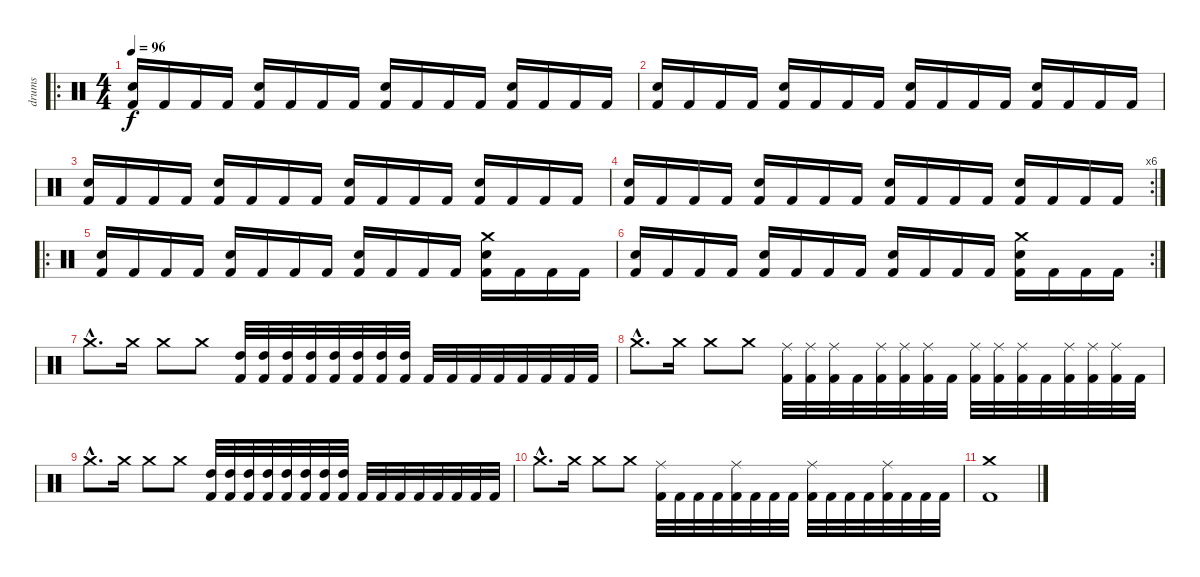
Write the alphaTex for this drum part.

\track ("drums" "drums") {instrument percussion}
\staff {score}
\articulation defaults
\ro
\ts (4 4)
\tempo 96
\clef neutral
\ks c
("Electric Snare (hit)" "Kick (hit) 2").16{dy f} "Kick (hit) 2".16 "Kick (hit) 2".16 "Kick (hit) 2".16 ("Electric Snare (hit)" "Kick (hit) 2").16 "Kick (hit) 2".16 "Kick (hit) 2".16 "Kick (hit) 2".16 ("Electric Snare (hit)" "Kick (hit) 2").16 "Kick (hit) 2".16 "Kick (hit) 2".16 "Kick (hit) 2".16 ("Electric Snare (hit)" "Kick (hit) 2").16 "Kick (hit) 2".16 "Kick (hit) 2".16 "Kick (hit) 2".16 |
("Electric Snare (hit)" "Kick (hit) 2").16 "Kick (hit) 2".16 "Kick (hit) 2".16 "Kick (hit) 2".16 ("Electric Snare (hit)" "Kick (hit) 2").16 "Kick (hit) 2".16 "Kick (hit) 2".16 "Kick (hit) 2".16 ("Electric Snare (hit)" "Kick (hit) 2").16 "Kick (hit) 2".16 "Kick (hit) 2".16 "Kick (hit) 2".16 ("Electric Snare (hit)" "Kick (hit) 2").16 "Kick (hit) 2".16 "Kick (hit) 2".16 "Kick (hit) 2".16 |
("Electric Snare (hit)" "Kick (hit) 2").16 "Kick (hit) 2".16 "Kick (hit) 2".16 "Kick (hit) 2".16 ("Electric Snare (hit)" "Kick (hit) 2").16 "Kick (hit) 2".16 "Kick (hit) 2".16 "Kick (hit) 2".16 ("Electric Snare (hit)" "Kick (hit) 2").16 "Kick (hit) 2".16 "Kick (hit) 2".16 "Kick (hit) 2".16 ("Electric Snare (hit)" "Kick (hit) 2").16 "Kick (hit) 2".16 "Kick (hit) 2".16 "Kick (hit) 2".16 |
\rc 6
("Electric Snare (hit)" "Kick (hit) 2").16 "Kick (hit) 2".16 "Kick (hit) 2".16 "Kick (hit) 2".16 ("Electric Snare (hit)" "Kick (hit) 2").16 "Kick (hit) 2".16 "Kick (hit) 2".16 "Kick (hit) 2".16 ("Electric Snare (hit)" "Kick (hit) 2").16 "Kick (hit) 2".16 "Kick (hit) 2".16 "Kick (hit) 2".16 ("Electric Snare (hit)" "Kick (hit) 2").16 "Kick (hit) 2".16 "Kick (hit) 2".16 "Kick (hit) 2".16 |
\ro
("Electric Snare (hit)" "Kick (hit) 2").16 "Kick (hit) 2".16 "Kick (hit) 2".16 "Kick (hit) 2".16 ("Electric Snare (hit)" "Kick (hit) 2").16 "Kick (hit) 2".16 "Kick (hit) 2".16 "Kick (hit) 2".16 ("Electric Snare (hit)" "Kick (hit) 2").16 "Kick (hit) 2".16 "Kick (hit) 2".16 "Kick (hit) 2".16 ("Crash medium (hit)" "Electric Snare (hit)" "Kick (hit) 2").16 "Kick (hit) 2".16 "Kick (hit) 2".16 "Kick (hit) 2".16 |
\rc 2
("Electric Snare (hit)" "Kick (hit) 2").16 "Kick (hit) 2".16 "Kick (hit) 2".16 "Kick (hit) 2".16 ("Electric Snare (hit)" "Kick (hit) 2").16 "Kick (hit) 2".16 "Kick (hit) 2".16 "Kick (hit) 2".16 ("Electric Snare (hit)" "Kick (hit) 2").16 "Kick (hit) 2".16 "Kick (hit) 2".16 "Kick (hit) 2".16 ("Crash medium (hit)" "Electric Snare (hit)" "Kick (hit) 2").16 "Kick (hit) 2".16 "Kick (hit) 2".16 "Kick (hit) 2".16 |
"Crash medium (hit)"{hac}.8{d} "Crash medium (hit)".16 "Crash medium (hit)".8 "Crash medium (hit)".8 ("High Tom (hit)" "Kick (hit) 2").32 ("High Tom (hit)" "Kick (hit) 2").32 ("High Tom (hit)" "Kick (hit) 2").32 ("High Tom (hit)" "Kick (hit) 2").32 ("High Tom (hit)" "Kick (hit) 2").32 ("High Tom (hit)" "Kick (hit) 2").32 ("High Tom (hit)" "Kick (hit) 2").32 ("High Tom (hit)" "Kick (hit) 2").32 "Kick (hit) 2".32 "Kick (hit) 2".32 "Kick (hit) 2".32 "Kick (hit) 2".32 "Kick (hit) 2".32 "Kick (hit) 2".32 "Kick (hit) 2".32 "Kick (hit) 2".32 |
"Crash medium (hit)"{hac}.8{d} "Crash medium (hit)".16 "Crash medium (hit)".8 "Crash medium (hit)".8 ("Ride (middle)" "Kick (hit) 2").32 ("Ride (middle)" "Kick (hit) 2").32 ("Ride (middle)" "Kick (hit) 2").32 "Kick (hit) 2".32 ("Ride (middle)" "Kick (hit) 2").32 ("Ride (middle)" "Kick (hit) 2").32 ("Ride (middle)" "Kick (hit) 2").32 "Kick (hit) 2".32 ("Ride (middle)" "Kick (hit) 2").32 ("Ride (middle)" "Kick (hit) 2").32 ("Ride (middle)" "Kick (hit) 2").32 "Kick (hit) 2".32 ("Ride (middle)" "Kick (hit) 2").32 ("Ride (middle)" "Kick (hit) 2").32 ("Ride (middle)" "Kick (hit) 2").32 "Kick (hit) 2".32 |
"Crash medium (hit)"{hac}.8{d} "Crash medium (hit)".16 "Crash medium (hit)".8 "Crash medium (hit)".8 ("High Tom (hit)" "Kick (hit) 2").32 ("High Tom (hit)" "Kick (hit) 2").32 ("High Tom (hit)" "Kick (hit) 2").32 ("High Tom (hit)" "Kick (hit) 2").32 ("High Tom (hit)" "Kick (hit) 2").32 ("High Tom (hit)" "Kick (hit) 2").32 ("High Tom (hit)" "Kick (hit) 2").32 ("High Tom (hit)" "Kick (hit) 2").32 "Kick (hit) 2".32 "Kick (hit) 2".32 "Kick (hit) 2".32 "Kick (hit) 2".32 "Kick (hit) 2".32 "Kick (hit) 2".32 "Kick (hit) 2".32 "Kick (hit) 2".32 |
"Crash medium (hit)"{hac}.8{d} "Crash medium (hit)".16 "Crash medium (hit)".8 "Crash medium (hit)".8 ("Ride (middle)" "Kick (hit) 2").32 "Kick (hit) 2".32 "Kick (hit) 2".32 "Kick (hit) 2".32 ("Ride (middle)" "Kick (hit) 2").32 "Kick (hit) 2".32 "Kick (hit) 2".32 "Kick (hit) 2".32 ("Ride (middle)" "Kick (hit) 2").32 "Kick (hit) 2".32 "Kick (hit) 2".32 "Kick (hit) 2".32 ("Ride (middle)" "Kick (hit) 2").32 "Kick (hit) 2".32 "Kick (hit) 2".32 "Kick (hit) 2".32 |
("Crash medium (hit)" "Kick (hit) 2").1
